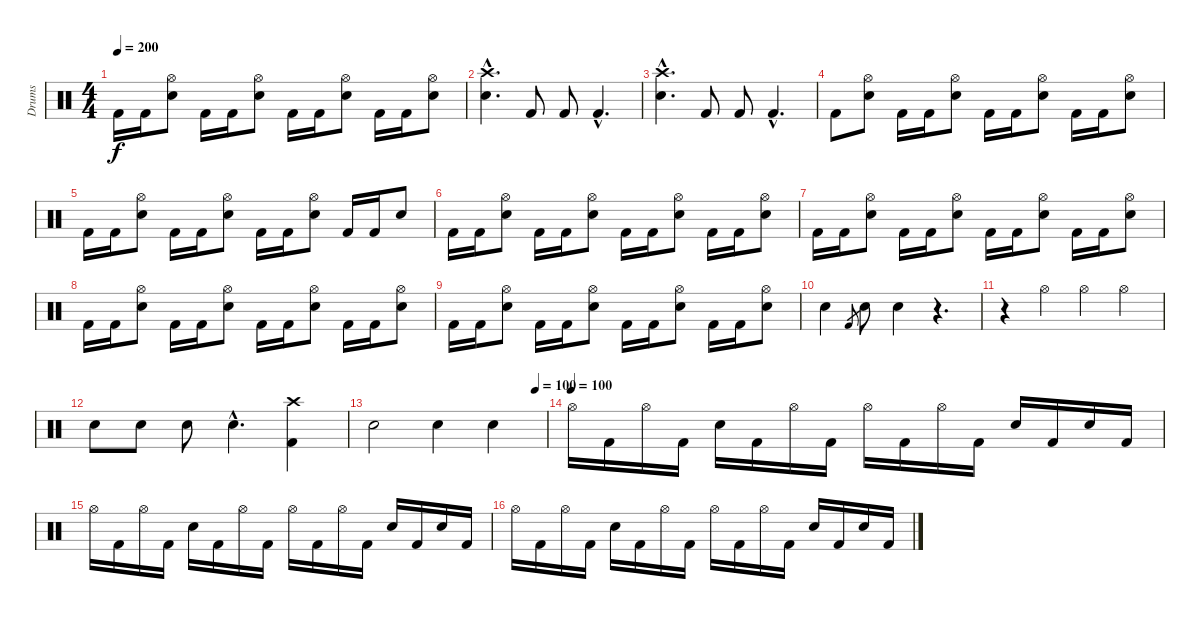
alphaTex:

\track ("Drums" "Drums") {instrument percussion}
\staff {score}
\articulation defaults
\ts (4 4)
\tempo 200
\clef neutral
\ks c "Kick (hit) 2".16{dy f} "Kick (hit) 2".16
("Hi-Hat (open)" "Snare (hit) 2").8 "Kick (hit) 2".16 "Kick (hit) 2".16 ("Hi-Hat (open)" "Snare (hit) 2").8 "Kick (hit) 2".16 "Kick (hit) 2".16 ("Hi-Hat (open)" "Snare (hit) 2").8 "Kick (hit) 2".16 "Kick (hit) 2".16 ("Hi-Hat (open)" "Snare (hit) 2").8 |
("Crash high (hit)"{hac} "Snare (hit) 2"{hac}).4{d} "Kick (hit) 2".8 "Kick (hit) 2".8 "Kick (hit) 2"{hac}.4{d} |
("Crash high (hit)"{hac} "Snare (hit) 2"{hac}).4{d} "Kick (hit) 2".8 "Kick (hit) 2".8 "Kick (hit) 2"{hac}.4{d} |
"Kick (hit) 2".8 ("Hi-Hat (open)" "Snare (hit) 2").8 "Kick (hit) 2".16 "Kick (hit) 2".16 ("Hi-Hat (open)" "Snare (hit) 2").8 "Kick (hit) 2".16 "Kick (hit) 2".16 ("Hi-Hat (open)" "Snare (hit) 2").8 "Kick (hit) 2".16 "Kick (hit) 2".16 ("Hi-Hat (open)" "Snare (hit) 2").8 |
"Kick (hit) 2".16 "Kick (hit) 2".16 ("Hi-Hat (open)" "Snare (hit) 2").8 "Kick (hit) 2".16 "Kick (hit) 2".16 ("Hi-Hat (open)" "Snare (hit) 2").8 "Kick (hit) 2".16 "Kick (hit) 2".16 ("Hi-Hat (open)" "Snare (hit) 2").8 "Kick (hit) 2".16 "Kick (hit) 2".16 "Snare (hit) 2".8 |
"Kick (hit) 2".16 "Kick (hit) 2".16 ("Hi-Hat (open)" "Snare (hit) 2").8 "Kick (hit) 2".16 "Kick (hit) 2".16 ("Hi-Hat (open)" "Snare (hit) 2").8 "Kick (hit) 2".16 "Kick (hit) 2".16 ("Hi-Hat (open)" "Snare (hit) 2").8 "Kick (hit) 2".16 "Kick (hit) 2".16 ("Hi-Hat (open)" "Snare (hit) 2").8 |
"Kick (hit) 2".16 "Kick (hit) 2".16 ("Hi-Hat (open)" "Snare (hit) 2").8 "Kick (hit) 2".16 "Kick (hit) 2".16 ("Hi-Hat (open)" "Snare (hit) 2").8 "Kick (hit) 2".16 "Kick (hit) 2".16 ("Hi-Hat (open)" "Snare (hit) 2").8 "Kick (hit) 2".16 "Kick (hit) 2".16 ("Hi-Hat (open)" "Snare (hit) 2").8 |
"Kick (hit) 2".16 "Kick (hit) 2".16 ("Hi-Hat (open)" "Snare (hit) 2").8 "Kick (hit) 2".16 "Kick (hit) 2".16 ("Hi-Hat (open)" "Snare (hit) 2").8 "Kick (hit) 2".16 "Kick (hit) 2".16 ("Hi-Hat (open)" "Snare (hit) 2").8 "Kick (hit) 2".16 "Kick (hit) 2".16 ("Hi-Hat (open)" "Snare (hit) 2").8 |
"Kick (hit) 2".16 "Kick (hit) 2".16 ("Hi-Hat (open)" "Snare (hit) 2").8 "Kick (hit) 2".16 "Kick (hit) 2".16 ("Hi-Hat (open)" "Snare (hit) 2").8 "Kick (hit) 2".16 "Kick (hit) 2".16 ("Hi-Hat (open)" "Snare (hit) 2").8 "Kick (hit) 2".16 "Kick (hit) 2".16 ("Hi-Hat (open)" "Snare (hit) 2").8 |
"Snare (hit) 2".4 "Kick (hit) 2".8{gr} "Snare (hit) 2".8 "Snare (hit) 2".4 r.4{d} |
r.4 "Hi-Hat (open)".4 "Hi-Hat (open)".4 "Hi-Hat (open)".4 |
"Snare (hit) 2".8 "Snare (hit) 2".8 "Snare (hit) 2".8 "Snare (hit) 2"{hac}.4{d} ("Crash high (hit)" "Kick (hit) 2").4 |
\tempo (100 0.9375)
"Snare (hit) 2".2 "Snare (hit) 2".4 "Snare (hit) 2".4 |
\tempo (100)
"Hi-Hat (open)".16 "Kick (hit) 2".16 "Hi-Hat (open)".16 "Kick (hit) 2".16 "Snare (hit) 2".16 "Kick (hit) 2".16 "Hi-Hat (open)".16 "Kick (hit) 2".16 "Hi-Hat (open)".16 "Kick (hit) 2".16 "Hi-Hat (open)".16 "Kick (hit) 2".16 "Snare (hit) 2".16 "Kick (hit) 2".16 "Snare (hit) 2".16 "Kick (hit) 2".16 |
"Hi-Hat (open)".16 "Kick (hit) 2".16 "Hi-Hat (open)".16 "Kick (hit) 2".16 "Snare (hit) 2".16 "Kick (hit) 2".16 "Hi-Hat (open)".16 "Kick (hit) 2".16 "Hi-Hat (open)".16 "Kick (hit) 2".16 "Hi-Hat (open)".16 "Kick (hit) 2".16 "Snare (hit) 2".16 "Kick (hit) 2".16 "Snare (hit) 2".16 "Kick (hit) 2".16 |
"Hi-Hat (open)".16 "Kick (hit) 2".16 "Hi-Hat (open)".16 "Kick (hit) 2".16 "Snare (hit) 2".16 "Kick (hit) 2".16 "Hi-Hat (open)".16 "Kick (hit) 2".16 "Hi-Hat (open)".16 "Kick (hit) 2".16 "Hi-Hat (open)".16 "Kick (hit) 2".16 "Snare (hit) 2".16 "Kick (hit) 2".16 "Snare (hit) 2".16 "Kick (hit) 2".16
